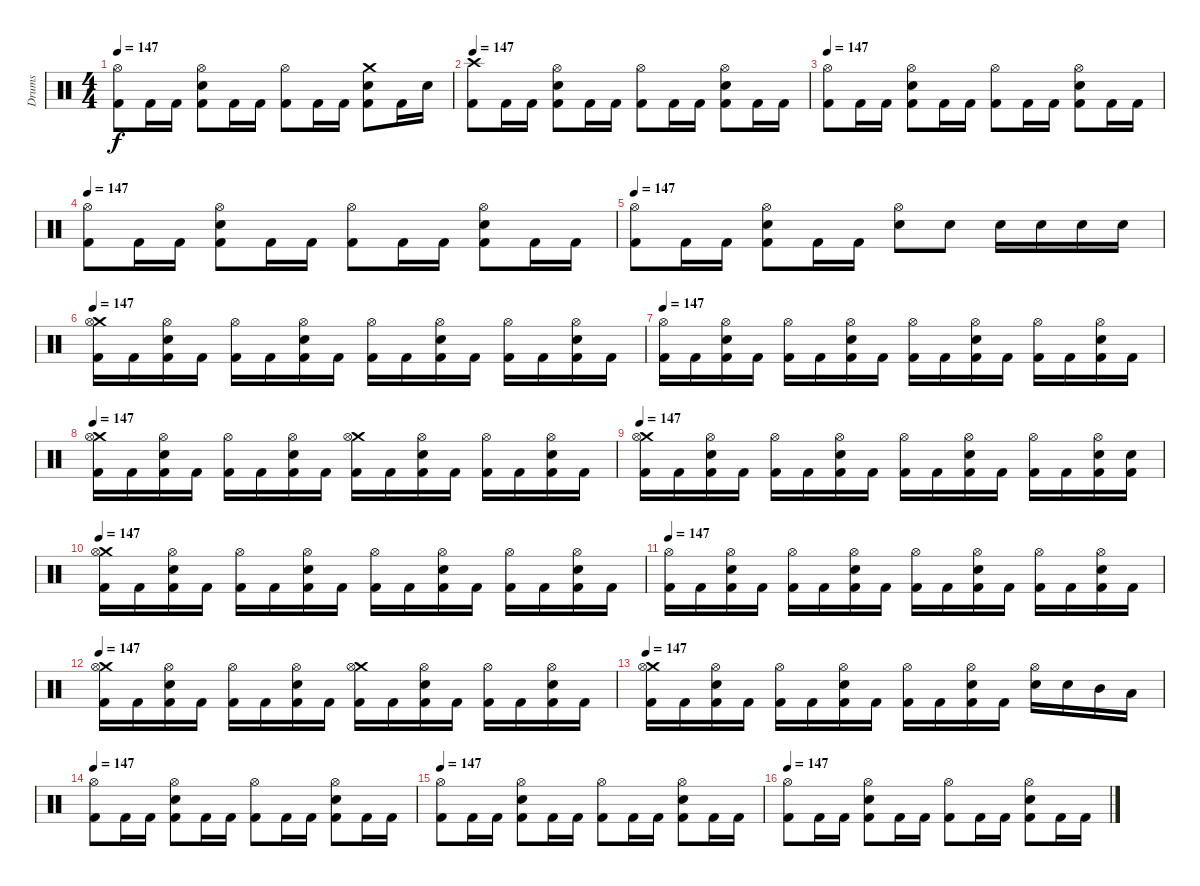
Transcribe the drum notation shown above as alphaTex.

\track ("Drums" "Drums") {instrument percussion}
\staff {score}
\articulation defaults
\ts (4 4)
\tempo 147
\clef neutral
\ks c
("Hi-Hat (open)" "Kick (hit) 2").8{dy f} "Kick (hit) 2".16 "Kick (hit) 2".16 ("Hi-Hat (open)" "Electric Snare (hit)" "Kick (hit) 2").8 "Kick (hit) 2".16 "Kick (hit) 2".16 ("Hi-Hat (open)" "Kick (hit) 2").8 "Kick (hit) 2".16 "Kick (hit) 2".16 ("Crash medium (hit)" "Electric Snare (hit)" "Kick (hit) 2").8 "Kick (hit) 2".16 "Electric Snare (hit)".16 |
\tempo 147
("Crash high (hit)" "Kick (hit) 2").8 "Kick (hit) 2".16 "Kick (hit) 2".16 ("Hi-Hat (open)" "Electric Snare (hit)" "Kick (hit) 2").8 "Kick (hit) 2".16 "Kick (hit) 2".16 ("Hi-Hat (open)" "Kick (hit) 2").8 "Kick (hit) 2".16 "Kick (hit) 2".16 ("Hi-Hat (open)" "Electric Snare (hit)" "Kick (hit) 2").8 "Kick (hit) 2".16 "Kick (hit) 2".16 |
\tempo 147
("Hi-Hat (open)" "Kick (hit) 2").8 "Kick (hit) 2".16 "Kick (hit) 2".16 ("Hi-Hat (open)" "Electric Snare (hit)" "Kick (hit) 2").8 "Kick (hit) 2".16 "Kick (hit) 2".16 ("Hi-Hat (open)" "Kick (hit) 2").8 "Kick (hit) 2".16 "Kick (hit) 2".16 ("Hi-Hat (open)" "Electric Snare (hit)" "Kick (hit) 2").8 "Kick (hit) 2".16 "Kick (hit) 2".16 |
\tempo 147
("Hi-Hat (open)" "Kick (hit) 2").8 "Kick (hit) 2".16 "Kick (hit) 2".16 ("Hi-Hat (open)" "Electric Snare (hit)" "Kick (hit) 2").8 "Kick (hit) 2".16 "Kick (hit) 2".16 ("Hi-Hat (open)" "Kick (hit) 2").8 "Kick (hit) 2".16 "Kick (hit) 2".16 ("Hi-Hat (open)" "Electric Snare (hit)" "Kick (hit) 2").8 "Kick (hit) 2".16 "Kick (hit) 2".16 |
\tempo 147
("Hi-Hat (open)" "Kick (hit) 2").8 "Kick (hit) 2".16 "Kick (hit) 2".16 ("Hi-Hat (open)" "Electric Snare (hit)" "Kick (hit) 2").8 "Kick (hit) 2".16 "Kick (hit) 2".16 ("Hi-Hat (open)" "Snare (hit) 2").8 "Snare (hit) 2".8 "Snare (hit) 2".16 "Snare (hit) 2".16 "Snare (hit) 2".16 "Snare (hit) 2".16 |
\tempo 147
("Crash medium (hit)" "Hi-Hat (open)" "Kick (hit) 2").16 "Kick (hit) 2".16 ("Hi-Hat (open)" "Electric Snare (hit)" "Kick (hit) 2").16 "Kick (hit) 2".16 ("Hi-Hat (open)" "Kick (hit) 2").16 "Kick (hit) 2".16 ("Hi-Hat (open)" "Electric Snare (hit)" "Kick (hit) 2").16 "Kick (hit) 2".16 ("Hi-Hat (open)" "Kick (hit) 2").16 "Kick (hit) 2".16 ("Hi-Hat (open)" "Electric Snare (hit)" "Kick (hit) 2").16 "Kick (hit) 2".16 ("Hi-Hat (open)" "Kick (hit) 2").16 "Kick (hit) 2".16 ("Hi-Hat (open)" "Electric Snare (hit)" "Kick (hit) 2").16 "Kick (hit) 2".16 |
\tempo 147
("Hi-Hat (open)" "Kick (hit) 2").16 "Kick (hit) 2".16 ("Hi-Hat (open)" "Electric Snare (hit)" "Kick (hit) 2").16 "Kick (hit) 2".16 ("Hi-Hat (open)" "Kick (hit) 2").16 "Kick (hit) 2".16 ("Hi-Hat (open)" "Electric Snare (hit)" "Kick (hit) 2").16 "Kick (hit) 2".16 ("Hi-Hat (open)" "Kick (hit) 2").16 "Kick (hit) 2".16 ("Hi-Hat (open)" "Electric Snare (hit)" "Kick (hit) 2").16 "Kick (hit) 2".16 ("Hi-Hat (open)" "Kick (hit) 2").16 "Kick (hit) 2".16 ("Hi-Hat (open)" "Electric Snare (hit)" "Kick (hit) 2").16 "Kick (hit) 2".16 |
\tempo 147
("Crash medium (hit)" "Hi-Hat (open)" "Kick (hit) 2").16 "Kick (hit) 2".16 ("Hi-Hat (open)" "Electric Snare (hit)" "Kick (hit) 2").16 "Kick (hit) 2".16 ("Hi-Hat (open)" "Kick (hit) 2").16 "Kick (hit) 2".16 ("Hi-Hat (open)" "Electric Snare (hit)" "Kick (hit) 2").16 "Kick (hit) 2".16 ("Crash medium (hit)" "Hi-Hat (open)" "Kick (hit) 2").16 "Kick (hit) 2".16 ("Hi-Hat (open)" "Electric Snare (hit)" "Kick (hit) 2").16 "Kick (hit) 2".16 ("Hi-Hat (open)" "Kick (hit) 2").16 "Kick (hit) 2".16 ("Hi-Hat (open)" "Electric Snare (hit)" "Kick (hit) 2").16 "Kick (hit) 2".16 |
\tempo 147
("Crash medium (hit)" "Hi-Hat (open)" "Kick (hit) 2").16 "Kick (hit) 2".16 ("Hi-Hat (open)" "Electric Snare (hit)" "Kick (hit) 2").16 "Kick (hit) 2".16 ("Hi-Hat (open)" "Kick (hit) 2").16 "Kick (hit) 2".16 ("Hi-Hat (open)" "Electric Snare (hit)" "Kick (hit) 2").16 "Kick (hit) 2".16 ("Hi-Hat (open)" "Kick (hit) 2").16 "Kick (hit) 2".16 ("Hi-Hat (open)" "Electric Snare (hit)" "Kick (hit) 2").16 "Kick (hit) 2".16 ("Hi-Hat (open)" "Kick (hit) 2").16 "Kick (hit) 2".16 ("Hi-Hat (open)" "Electric Snare (hit)" "Kick (hit) 2").16 ("Electric Snare (hit)" "Kick (hit) 2").16 |
\tempo 147
("Crash medium (hit)" "Hi-Hat (open)" "Kick (hit) 2").16 "Kick (hit) 2".16 ("Hi-Hat (open)" "Electric Snare (hit)" "Kick (hit) 2").16 "Kick (hit) 2".16 ("Hi-Hat (open)" "Kick (hit) 2").16 "Kick (hit) 2".16 ("Hi-Hat (open)" "Electric Snare (hit)" "Kick (hit) 2").16 "Kick (hit) 2".16 ("Hi-Hat (open)" "Kick (hit) 2").16 "Kick (hit) 2".16 ("Hi-Hat (open)" "Electric Snare (hit)" "Kick (hit) 2").16 "Kick (hit) 2".16 ("Hi-Hat (open)" "Kick (hit) 2").16 "Kick (hit) 2".16 ("Hi-Hat (open)" "Electric Snare (hit)" "Kick (hit) 2").16 "Kick (hit) 2".16 |
\tempo 147
("Hi-Hat (open)" "Kick (hit) 2").16 "Kick (hit) 2".16 ("Hi-Hat (open)" "Electric Snare (hit)" "Kick (hit) 2").16 "Kick (hit) 2".16 ("Hi-Hat (open)" "Kick (hit) 2").16 "Kick (hit) 2".16 ("Hi-Hat (open)" "Electric Snare (hit)" "Kick (hit) 2").16 "Kick (hit) 2".16 ("Hi-Hat (open)" "Kick (hit) 2").16 "Kick (hit) 2".16 ("Hi-Hat (open)" "Electric Snare (hit)" "Kick (hit) 2").16 "Kick (hit) 2".16 ("Hi-Hat (open)" "Kick (hit) 2").16 "Kick (hit) 2".16 ("Hi-Hat (open)" "Electric Snare (hit)" "Kick (hit) 2").16 "Kick (hit) 2".16 |
\tempo 147
("Crash medium (hit)" "Hi-Hat (open)" "Kick (hit) 2").16 "Kick (hit) 2".16 ("Hi-Hat (open)" "Electric Snare (hit)" "Kick (hit) 2").16 "Kick (hit) 2".16 ("Hi-Hat (open)" "Kick (hit) 2").16 "Kick (hit) 2".16 ("Hi-Hat (open)" "Electric Snare (hit)" "Kick (hit) 2").16 "Kick (hit) 2".16 ("Crash medium (hit)" "Hi-Hat (open)" "Kick (hit) 2").16 "Kick (hit) 2".16 ("Hi-Hat (open)" "Electric Snare (hit)" "Kick (hit) 2").16 "Kick (hit) 2".16 ("Hi-Hat (open)" "Kick (hit) 2").16 "Kick (hit) 2".16 ("Hi-Hat (open)" "Electric Snare (hit)" "Kick (hit) 2").16 "Kick (hit) 2".16 |
\tempo 147
("Crash medium (hit)" "Hi-Hat (open)" "Kick (hit) 2").16 "Kick (hit) 2".16 ("Hi-Hat (open)" "Electric Snare (hit)" "Kick (hit) 2").16 "Kick (hit) 2".16 ("Hi-Hat (open)" "Kick (hit) 2").16 "Kick (hit) 2".16 ("Hi-Hat (open)" "Electric Snare (hit)" "Kick (hit) 2").16 "Kick (hit) 2".16 ("Hi-Hat (open)" "Kick (hit) 2").16 "Kick (hit) 2".16 ("Hi-Hat (open)" "Electric Snare (hit)" "Kick (hit) 2").16 "Kick (hit) 2".16 ("Hi-Hat (open)" "Electric Snare (hit)").16 "Electric Snare (hit)".16 "Mid Tom (hit)".16 "Low Tom (hit)".16 |
\tempo 147
("Hi-Hat (open)" "Kick (hit) 2").8 "Kick (hit) 2".16 "Kick (hit) 2".16 ("Hi-Hat (open)" "Electric Snare (hit)" "Kick (hit) 2").8 "Kick (hit) 2".16 "Kick (hit) 2".16 ("Hi-Hat (open)" "Kick (hit) 2").8 "Kick (hit) 2".16 "Kick (hit) 2".16 ("Hi-Hat (open)" "Electric Snare (hit)" "Kick (hit) 2").8 "Kick (hit) 2".16 "Kick (hit) 2".16 |
\tempo 147
("Hi-Hat (open)" "Kick (hit) 2").8 "Kick (hit) 2".16 "Kick (hit) 2".16 ("Hi-Hat (open)" "Electric Snare (hit)" "Kick (hit) 2").8 "Kick (hit) 2".16 "Kick (hit) 2".16 ("Hi-Hat (open)" "Kick (hit) 2").8 "Kick (hit) 2".16 "Kick (hit) 2".16 ("Hi-Hat (open)" "Electric Snare (hit)" "Kick (hit) 2").8 "Kick (hit) 2".16 "Kick (hit) 2".16 |
\tempo 147
("Hi-Hat (open)" "Kick (hit) 2").8 "Kick (hit) 2".16 "Kick (hit) 2".16 ("Hi-Hat (open)" "Electric Snare (hit)" "Kick (hit) 2").8 "Kick (hit) 2".16 "Kick (hit) 2".16 ("Hi-Hat (open)" "Kick (hit) 2").8 "Kick (hit) 2".16 "Kick (hit) 2".16 ("Hi-Hat (open)" "Electric Snare (hit)" "Kick (hit) 2").8 "Kick (hit) 2".16 "Kick (hit) 2".16
